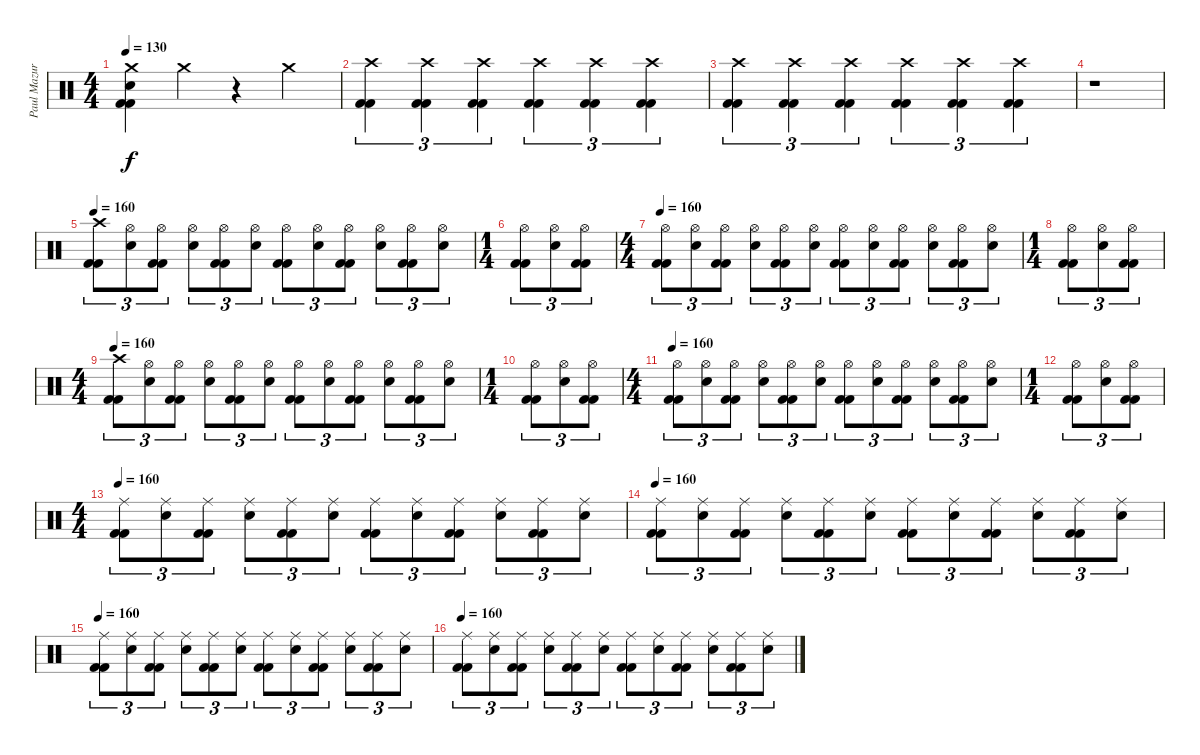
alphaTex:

\track ("Paul Mazurkiewicz" "Paul Mazur") {instrument percussion}
\staff {score}
\articulation defaults
\ts (4 4)
\tempo 130
\clef neutral
\ks c
("Crash medium (hit)" "Snare (hit) 2" "Kick (hit) 2" "Kick (hit) 2").4{dy f} "Crash medium (hit)".4 r.4 "Crash medium (hit)".4 |
("Crash high (hit)" "Kick (hit) 2" "Kick (hit) 2").4{tu (3 2)} ("Crash high (hit)" "Kick (hit) 2" "Kick (hit) 2").4{tu (3 2)} ("Crash high (hit)" "Kick (hit) 2" "Kick (hit) 2").4{tu (3 2)} ("Crash high (hit)" "Kick (hit) 2" "Kick (hit) 2").4{tu (3 2)} ("Crash high (hit)" "Kick (hit) 2" "Kick (hit) 2").4{tu (3 2)} ("Crash high (hit)" "Kick (hit) 2" "Kick (hit) 2").4{tu (3 2)} |
("Crash high (hit)" "Kick (hit) 2" "Kick (hit) 2").4{tu (3 2)} ("Crash high (hit)" "Kick (hit) 2" "Kick (hit) 2").4{tu (3 2)} ("Crash high (hit)" "Kick (hit) 2" "Kick (hit) 2").4{tu (3 2)} ("Crash high (hit)" "Kick (hit) 2" "Kick (hit) 2").4{tu (3 2)} ("Crash high (hit)" "Kick (hit) 2" "Kick (hit) 2").4{tu (3 2)} ("Crash high (hit)" "Kick (hit) 2" "Kick (hit) 2").4{tu (3 2)} |
r.1 |
\tempo 160
("Kick (hit) 2" "Crash high (hit)" "Kick (hit) 2").8{tu (3 2)} ("Hi-Hat (open)" "Snare (hit) 2").8{tu (3 2)} ("Kick (hit) 2" "Hi-Hat (open)" "Kick (hit) 2").8{tu (3 2)} ("Hi-Hat (open)" "Snare (hit) 2").8{tu (3 2)} ("Kick (hit) 2" "Hi-Hat (open)" "Kick (hit) 2").8{tu (3 2)} ("Hi-Hat (open)" "Snare (hit) 2").8{tu (3 2)} ("Kick (hit) 2" "Hi-Hat (open)" "Kick (hit) 2").8{tu (3 2)} ("Hi-Hat (open)" "Snare (hit) 2").8{tu (3 2)} ("Kick (hit) 2" "Hi-Hat (open)" "Kick (hit) 2").8{tu (3 2)} ("Hi-Hat (open)" "Snare (hit) 2").8{tu (3 2)} ("Kick (hit) 2" "Hi-Hat (open)" "Kick (hit) 2").8{tu (3 2)} ("Hi-Hat (open)" "Snare (hit) 2").8{tu (3 2)} |
\ts (1 4)
("Kick (hit) 2" "Hi-Hat (open)" "Kick (hit) 2").8{tu (3 2)} ("Hi-Hat (open)" "Snare (hit) 2").8{tu (3 2)} ("Kick (hit) 2" "Hi-Hat (open)" "Kick (hit) 2").8{tu (3 2)} |
\ts (4 4)
\tempo 160
("Kick (hit) 2" "Hi-Hat (open)" "Kick (hit) 2").8{tu (3 2)} ("Hi-Hat (open)" "Snare (hit) 2").8{tu (3 2)} ("Kick (hit) 2" "Hi-Hat (open)" "Kick (hit) 2").8{tu (3 2)} ("Hi-Hat (open)" "Snare (hit) 2").8{tu (3 2)} ("Kick (hit) 2" "Hi-Hat (open)" "Kick (hit) 2").8{tu (3 2)} ("Hi-Hat (open)" "Snare (hit) 2").8{tu (3 2)} ("Kick (hit) 2" "Hi-Hat (open)" "Kick (hit) 2").8{tu (3 2)} ("Hi-Hat (open)" "Snare (hit) 2").8{tu (3 2)} ("Kick (hit) 2" "Hi-Hat (open)" "Kick (hit) 2").8{tu (3 2)} ("Hi-Hat (open)" "Snare (hit) 2").8{tu (3 2)} ("Kick (hit) 2" "Hi-Hat (open)" "Kick (hit) 2").8{tu (3 2)} ("Hi-Hat (open)" "Snare (hit) 2").8{tu (3 2)} |
\ts (1 4)
("Kick (hit) 2" "Hi-Hat (open)" "Kick (hit) 2").8{tu (3 2)} ("Hi-Hat (open)" "Snare (hit) 2").8{tu (3 2)} ("Kick (hit) 2" "Hi-Hat (open)" "Kick (hit) 2").8{tu (3 2)} |
\ts (4 4)
\tempo 160
("Kick (hit) 2" "Crash high (hit)" "Kick (hit) 2").8{tu (3 2)} ("Hi-Hat (open)" "Snare (hit) 2").8{tu (3 2)} ("Kick (hit) 2" "Hi-Hat (open)" "Kick (hit) 2").8{tu (3 2)} ("Hi-Hat (open)" "Snare (hit) 2").8{tu (3 2)} ("Kick (hit) 2" "Hi-Hat (open)" "Kick (hit) 2").8{tu (3 2)} ("Hi-Hat (open)" "Snare (hit) 2").8{tu (3 2)} ("Kick (hit) 2" "Hi-Hat (open)" "Kick (hit) 2").8{tu (3 2)} ("Hi-Hat (open)" "Snare (hit) 2").8{tu (3 2)} ("Kick (hit) 2" "Hi-Hat (open)" "Kick (hit) 2").8{tu (3 2)} ("Hi-Hat (open)" "Snare (hit) 2").8{tu (3 2)} ("Kick (hit) 2" "Hi-Hat (open)" "Kick (hit) 2").8{tu (3 2)} ("Hi-Hat (open)" "Snare (hit) 2").8{tu (3 2)} |
\ts (1 4)
("Kick (hit) 2" "Hi-Hat (open)" "Kick (hit) 2").8{tu (3 2)} ("Hi-Hat (open)" "Snare (hit) 2").8{tu (3 2)} ("Kick (hit) 2" "Hi-Hat (open)" "Kick (hit) 2").8{tu (3 2)} |
\ts (4 4)
\tempo 160
("Kick (hit) 2" "Hi-Hat (open)" "Kick (hit) 2").8{tu (3 2)} ("Hi-Hat (open)" "Snare (hit) 2").8{tu (3 2)} ("Kick (hit) 2" "Hi-Hat (open)" "Kick (hit) 2").8{tu (3 2)} ("Hi-Hat (open)" "Snare (hit) 2").8{tu (3 2)} ("Kick (hit) 2" "Hi-Hat (open)" "Kick (hit) 2").8{tu (3 2)} ("Hi-Hat (open)" "Snare (hit) 2").8{tu (3 2)} ("Kick (hit) 2" "Hi-Hat (open)" "Kick (hit) 2").8{tu (3 2)} ("Hi-Hat (open)" "Snare (hit) 2").8{tu (3 2)} ("Kick (hit) 2" "Hi-Hat (open)" "Kick (hit) 2").8{tu (3 2)} ("Hi-Hat (open)" "Snare (hit) 2").8{tu (3 2)} ("Kick (hit) 2" "Hi-Hat (open)" "Kick (hit) 2").8{tu (3 2)} ("Hi-Hat (open)" "Snare (hit) 2").8{tu (3 2)} |
\ts (1 4)
("Kick (hit) 2" "Hi-Hat (open)" "Kick (hit) 2").8{tu (3 2)} ("Hi-Hat (open)" "Snare (hit) 2").8{tu (3 2)} ("Kick (hit) 2" "Hi-Hat (open)" "Kick (hit) 2").8{tu (3 2)} |
\ts (4 4)
\tempo 160
("Kick (hit) 2" "Ride (middle)" "Kick (hit) 2").8{tu (3 2)} ("Ride (middle)" "Snare (hit) 2").8{tu (3 2)} ("Kick (hit) 2" "Ride (middle)" "Kick (hit) 2").8{tu (3 2)} ("Ride (middle)" "Snare (hit) 2").8{tu (3 2)} ("Kick (hit) 2" "Ride (middle)" "Kick (hit) 2").8{tu (3 2)} ("Ride (middle)" "Snare (hit) 2").8{tu (3 2)} ("Kick (hit) 2" "Ride (middle)" "Kick (hit) 2").8{tu (3 2)} ("Ride (middle)" "Snare (hit) 2").8{tu (3 2)} ("Kick (hit) 2" "Ride (middle)" "Kick (hit) 2").8{tu (3 2)} ("Ride (middle)" "Snare (hit) 2").8{tu (3 2)} ("Kick (hit) 2" "Ride (middle)" "Kick (hit) 2").8{tu (3 2)} ("Ride (middle)" "Snare (hit) 2").8{tu (3 2)} |
\tempo 160
("Kick (hit) 2" "Ride (middle)" "Kick (hit) 2").8{tu (3 2)} ("Ride (middle)" "Snare (hit) 2").8{tu (3 2)} ("Kick (hit) 2" "Ride (middle)" "Kick (hit) 2").8{tu (3 2)} ("Ride (middle)" "Snare (hit) 2").8{tu (3 2)} ("Kick (hit) 2" "Ride (middle)" "Kick (hit) 2").8{tu (3 2)} ("Ride (middle)" "Snare (hit) 2").8{tu (3 2)} ("Kick (hit) 2" "Ride (middle)" "Kick (hit) 2").8{tu (3 2)} ("Ride (middle)" "Snare (hit) 2").8{tu (3 2)} ("Kick (hit) 2" "Ride (middle)" "Kick (hit) 2").8{tu (3 2)} ("Ride (middle)" "Snare (hit) 2").8{tu (3 2)} ("Kick (hit) 2" "Ride (middle)" "Kick (hit) 2").8{tu (3 2)} ("Ride (middle)" "Snare (hit) 2").8{tu (3 2)} |
\tempo 160
("Kick (hit) 2" "Ride (middle)" "Kick (hit) 2").8{tu (3 2)} ("Ride (middle)" "Snare (hit) 2").8{tu (3 2)} ("Kick (hit) 2" "Ride (middle)" "Kick (hit) 2").8{tu (3 2)} ("Ride (middle)" "Snare (hit) 2").8{tu (3 2)} ("Kick (hit) 2" "Ride (middle)" "Kick (hit) 2").8{tu (3 2)} ("Ride (middle)" "Snare (hit) 2").8{tu (3 2)} ("Kick (hit) 2" "Ride (middle)" "Kick (hit) 2").8{tu (3 2)} ("Ride (middle)" "Snare (hit) 2").8{tu (3 2)} ("Kick (hit) 2" "Ride (middle)" "Kick (hit) 2").8{tu (3 2)} ("Ride (middle)" "Snare (hit) 2").8{tu (3 2)} ("Kick (hit) 2" "Ride (middle)" "Kick (hit) 2").8{tu (3 2)} ("Ride (middle)" "Snare (hit) 2").8{tu (3 2)} |
\tempo 160
("Kick (hit) 2" "Ride (middle)" "Kick (hit) 2").8{tu (3 2)} ("Ride (middle)" "Snare (hit) 2").8{tu (3 2)} ("Kick (hit) 2" "Ride (middle)" "Kick (hit) 2").8{tu (3 2)} ("Ride (middle)" "Snare (hit) 2").8{tu (3 2)} ("Kick (hit) 2" "Ride (middle)" "Kick (hit) 2").8{tu (3 2)} ("Ride (middle)" "Snare (hit) 2").8{tu (3 2)} ("Kick (hit) 2" "Ride (middle)" "Kick (hit) 2").8{tu (3 2)} ("Ride (middle)" "Snare (hit) 2").8{tu (3 2)} ("Kick (hit) 2" "Ride (middle)" "Kick (hit) 2").8{tu (3 2)} ("Ride (middle)" "Snare (hit) 2").8{tu (3 2)} ("Kick (hit) 2" "Ride (middle)" "Kick (hit) 2").8{tu (3 2)} ("Ride (middle)" "Snare (hit) 2").8{tu (3 2)}
